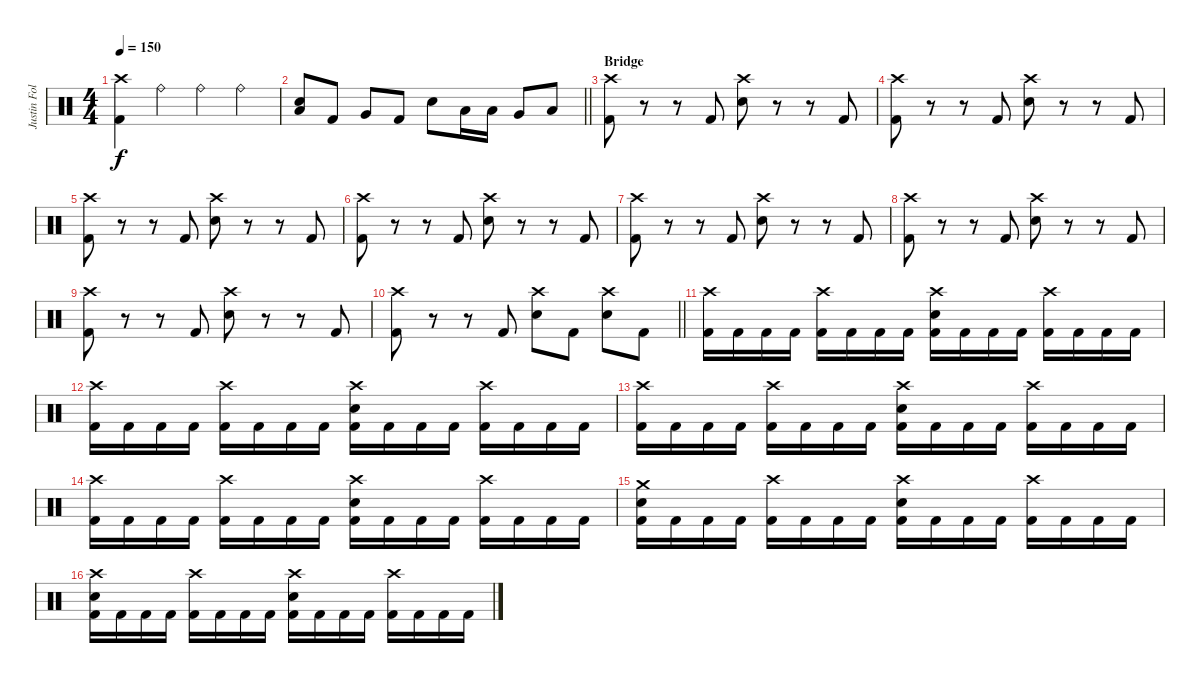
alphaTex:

\track ("Justin Foley" "Justin Fol") {instrument percussion}
\staff {score}
\articulation defaults
\ts (4 4)
\tempo 150
\clef neutral
\ks c
("Crash high (hit)" "Kick (hit) 2").4{dy f} "Ride (bell)".4 "Ride (bell)".4 "Ride (bell)".4 |
\barLineRight lightlight
("Low Floor Tom (hit)" "Snare (hit) 2").8 "Kick (hit) 2".8 "Very Low Tom (hit)".8 "Kick (hit) 2".8 "Snare (hit) 2".8 "Low Tom (hit)".16 "Low Tom (hit)".16 "Very Low Tom (hit)".8 "Low Floor Tom (hit)".8 |
\section ("" "Bridge")
("Crash high (hit)" "Kick (hit) 2").8 r.8 r.8 "Kick (hit) 2".8 ("Crash high (hit)" "Snare (hit) 2").8 r.8 r.8 "Kick (hit) 2".8 |
("Crash high (hit)" "Kick (hit) 2").8 r.8 r.8 "Kick (hit) 2".8 ("Crash high (hit)" "Snare (hit) 2").8 r.8 r.8 "Kick (hit) 2".8 |
("Crash high (hit)" "Kick (hit) 2").8 r.8 r.8 "Kick (hit) 2".8 ("Crash high (hit)" "Snare (hit) 2").8 r.8 r.8 "Kick (hit) 2".8 |
("Crash high (hit)" "Kick (hit) 2").8 r.8 r.8 "Kick (hit) 2".8 ("Crash high (hit)" "Snare (hit) 2").8 r.8 r.8 "Kick (hit) 2".8 |
("Crash high (hit)" "Kick (hit) 2").8 r.8 r.8 "Kick (hit) 2".8 ("Crash high (hit)" "Snare (hit) 2").8 r.8 r.8 "Kick (hit) 2".8 |
("Crash high (hit)" "Kick (hit) 2").8 r.8 r.8 "Kick (hit) 2".8 ("Crash high (hit)" "Snare (hit) 2").8 r.8 r.8 "Kick (hit) 2".8 |
("Crash high (hit)" "Kick (hit) 2").8 r.8 r.8 "Kick (hit) 2".8 ("Crash high (hit)" "Snare (hit) 2").8 r.8 r.8 "Kick (hit) 2".8 |
\barLineRight lightlight
("Crash high (hit)" "Kick (hit) 2").8 r.8 r.8 "Kick (hit) 2".8 ("Crash high (hit)" "Snare (hit) 2").8 "Kick (hit) 2".8 ("Crash high (hit)" "Snare (hit) 2").8 "Kick (hit) 2".8 |
("Crash high (hit)" "Kick (hit) 2").16 "Kick (hit) 2".16 "Kick (hit) 2".16 "Kick (hit) 2".16 ("Crash high (hit)" "Kick (hit) 2").16 "Kick (hit) 2".16 "Kick (hit) 2".16 "Kick (hit) 2".16 ("Crash high (hit)" "Snare (hit) 2" "Kick (hit) 2").16 "Kick (hit) 2".16 "Kick (hit) 2".16 "Kick (hit) 2".16 ("Crash high (hit)" "Kick (hit) 2").16 "Kick (hit) 2".16 "Kick (hit) 2".16 "Kick (hit) 2".16 |
("Crash high (hit)" "Kick (hit) 2").16 "Kick (hit) 2".16 "Kick (hit) 2".16 "Kick (hit) 2".16 ("Crash high (hit)" "Kick (hit) 2").16 "Kick (hit) 2".16 "Kick (hit) 2".16 "Kick (hit) 2".16 ("Crash high (hit)" "Snare (hit) 2" "Kick (hit) 2").16 "Kick (hit) 2".16 "Kick (hit) 2".16 "Kick (hit) 2".16 ("Crash high (hit)" "Kick (hit) 2").16 "Kick (hit) 2".16 "Kick (hit) 2".16 "Kick (hit) 2".16 |
("Crash high (hit)" "Kick (hit) 2").16 "Kick (hit) 2".16 "Kick (hit) 2".16 "Kick (hit) 2".16 ("Crash high (hit)" "Kick (hit) 2").16 "Kick (hit) 2".16 "Kick (hit) 2".16 "Kick (hit) 2".16 ("Crash high (hit)" "Snare (hit) 2" "Kick (hit) 2").16 "Kick (hit) 2".16 "Kick (hit) 2".16 "Kick (hit) 2".16 ("Crash high (hit)" "Kick (hit) 2").16 "Kick (hit) 2".16 "Kick (hit) 2".16 "Kick (hit) 2".16 |
("Crash high (hit)" "Kick (hit) 2").16 "Kick (hit) 2".16 "Kick (hit) 2".16 "Kick (hit) 2".16 ("Crash high (hit)" "Kick (hit) 2").16 "Kick (hit) 2".16 "Kick (hit) 2".16 "Kick (hit) 2".16 ("Crash high (hit)" "Snare (hit) 2" "Kick (hit) 2").16 "Kick (hit) 2".16 "Kick (hit) 2".16 "Kick (hit) 2".16 ("Crash high (hit)" "Kick (hit) 2").16 "Kick (hit) 2".16 "Kick (hit) 2".16 "Kick (hit) 2".16 |
("Crash medium (hit)" "Snare (hit) 2" "Kick (hit) 2").16 "Kick (hit) 2".16 "Kick (hit) 2".16 "Kick (hit) 2".16 ("Crash high (hit)" "Kick (hit) 2").16 "Kick (hit) 2".16 "Kick (hit) 2".16 "Kick (hit) 2".16 ("Crash high (hit)" "Snare (hit) 2" "Kick (hit) 2").16 "Kick (hit) 2".16 "Kick (hit) 2".16 "Kick (hit) 2".16 ("Crash high (hit)" "Kick (hit) 2").16 "Kick (hit) 2".16 "Kick (hit) 2".16 "Kick (hit) 2".16 |
("Crash high (hit)" "Snare (hit) 2" "Kick (hit) 2").16 "Kick (hit) 2".16 "Kick (hit) 2".16 "Kick (hit) 2".16 ("Crash high (hit)" "Kick (hit) 2").16 "Kick (hit) 2".16 "Kick (hit) 2".16 "Kick (hit) 2".16 ("Crash high (hit)" "Snare (hit) 2" "Kick (hit) 2").16 "Kick (hit) 2".16 "Kick (hit) 2".16 "Kick (hit) 2".16 ("Crash high (hit)" "Kick (hit) 2").16 "Kick (hit) 2".16 "Kick (hit) 2".16 "Kick (hit) 2".16
